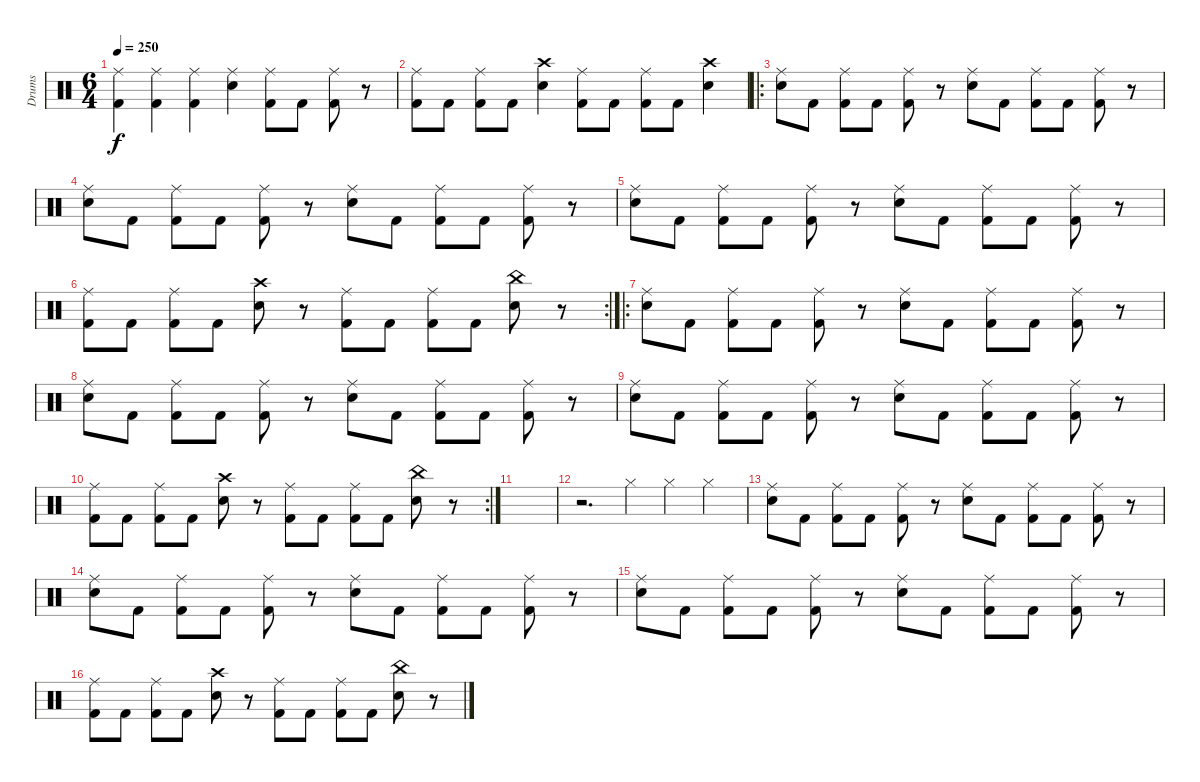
\track ("Drums" "Drums") {instrument percussion}
\staff {score}
\articulation defaults
\ts (6 4)
\tempo 250
\clef neutral
\ks c
("Ride (middle)" "Kick (hit) 2").4{dy f} ("Ride (middle)" "Kick (hit) 2").4 ("Ride (middle)" "Kick (hit) 2").4 ("Ride (middle)" "Snare (hit) 2").4 ("Ride (middle)" "Kick (hit) 2").8 "Kick (hit) 2".8 ("Ride (middle)" "Kick (hit) 2").8 r.8 |
("Ride (middle)" "Kick (hit) 2").8 "Kick (hit) 2".8 ("Ride (middle)" "Kick (hit) 2").8 "Kick (hit) 2".8 ("Crash high (hit)" "Snare (hit) 2").4 ("Ride (middle)" "Kick (hit) 2").8 "Kick (hit) 2".8 ("Ride (middle)" "Kick (hit) 2").8 "Kick (hit) 2".8 ("Crash high (hit)" "Snare (hit) 2").4 |
\ro
("Ride (middle)" "Snare (hit) 2").8 "Kick (hit) 2".8 ("Ride (middle)" "Kick (hit) 2").8 "Kick (hit) 2".8 ("Ride (middle)" "Kick (hit) 2").8 r.8 ("Ride (middle)" "Snare (hit) 2").8 "Kick (hit) 2".8 ("Ride (middle)" "Kick (hit) 2").8 "Kick (hit) 2".8 ("Ride (middle)" "Kick (hit) 2").8 r.8 |
("Ride (middle)" "Snare (hit) 2").8 "Kick (hit) 2".8 ("Ride (middle)" "Kick (hit) 2").8 "Kick (hit) 2".8 ("Ride (middle)" "Kick (hit) 2").8 r.8 ("Ride (middle)" "Snare (hit) 2").8 "Kick (hit) 2".8 ("Ride (middle)" "Kick (hit) 2").8 "Kick (hit) 2".8 ("Ride (middle)" "Kick (hit) 2").8 r.8 |
("Ride (middle)" "Snare (hit) 2").8 "Kick (hit) 2".8 ("Ride (middle)" "Kick (hit) 2").8 "Kick (hit) 2".8 ("Ride (middle)" "Kick (hit) 2").8 r.8 ("Ride (middle)" "Snare (hit) 2").8 "Kick (hit) 2".8 ("Ride (middle)" "Kick (hit) 2").8 "Kick (hit) 2".8 ("Ride (middle)" "Kick (hit) 2").8 r.8 |
\rc 2
("Ride (middle)" "Kick (hit) 2").8 "Kick (hit) 2".8 ("Ride (middle)" "Kick (hit) 2").8 "Kick (hit) 2".8 ("Crash high (hit)" "Snare (hit) 2").8 r.8 ("Ride (middle)" "Kick (hit) 2").8 "Kick (hit) 2".8 ("Ride (middle)" "Kick (hit) 2").8 "Kick (hit) 2".8 ("China (hit)" "Snare (hit) 2").8 r.8 |
\ro
("Ride (middle)" "Snare (hit) 2").8 "Kick (hit) 2".8 ("Ride (middle)" "Kick (hit) 2").8 "Kick (hit) 2".8 ("Ride (middle)" "Kick (hit) 2").8 r.8 ("Ride (middle)" "Snare (hit) 2").8 "Kick (hit) 2".8 ("Ride (middle)" "Kick (hit) 2").8 "Kick (hit) 2".8 ("Ride (middle)" "Kick (hit) 2").8 r.8 |
("Ride (middle)" "Snare (hit) 2").8 "Kick (hit) 2".8 ("Ride (middle)" "Kick (hit) 2").8 "Kick (hit) 2".8 ("Ride (middle)" "Kick (hit) 2").8 r.8 ("Ride (middle)" "Snare (hit) 2").8 "Kick (hit) 2".8 ("Ride (middle)" "Kick (hit) 2").8 "Kick (hit) 2".8 ("Ride (middle)" "Kick (hit) 2").8 r.8 |
("Ride (middle)" "Snare (hit) 2").8 "Kick (hit) 2".8 ("Ride (middle)" "Kick (hit) 2").8 "Kick (hit) 2".8 ("Ride (middle)" "Kick (hit) 2").8 r.8 ("Ride (middle)" "Snare (hit) 2").8 "Kick (hit) 2".8 ("Ride (middle)" "Kick (hit) 2").8 "Kick (hit) 2".8 ("Ride (middle)" "Kick (hit) 2").8 r.8 |
\rc 2
("Ride (middle)" "Kick (hit) 2").8 "Kick (hit) 2".8 ("Ride (middle)" "Kick (hit) 2").8 "Kick (hit) 2".8 ("Crash high (hit)" "Snare (hit) 2").8 r.8 ("Ride (middle)" "Kick (hit) 2").8 "Kick (hit) 2".8 ("Ride (middle)" "Kick (hit) 2").8 "Kick (hit) 2".8 ("China (hit)" "Snare (hit) 2").8 r.8 |
|
r.2{d} "Hi-Hat (closed)".4 "Hi-Hat (closed)".4 "Hi-Hat (closed)".4 |
("Ride (middle)" "Snare (hit) 2").8 "Kick (hit) 2".8 ("Ride (middle)" "Kick (hit) 2").8 "Kick (hit) 2".8 ("Ride (middle)" "Kick (hit) 2").8 r.8 ("Ride (middle)" "Snare (hit) 2").8 "Kick (hit) 2".8 ("Ride (middle)" "Kick (hit) 2").8 "Kick (hit) 2".8 ("Ride (middle)" "Kick (hit) 2").8 r.8 |
("Ride (middle)" "Snare (hit) 2").8 "Kick (hit) 2".8 ("Ride (middle)" "Kick (hit) 2").8 "Kick (hit) 2".8 ("Ride (middle)" "Kick (hit) 2").8 r.8 ("Ride (middle)" "Snare (hit) 2").8 "Kick (hit) 2".8 ("Ride (middle)" "Kick (hit) 2").8 "Kick (hit) 2".8 ("Ride (middle)" "Kick (hit) 2").8 r.8 |
("Ride (middle)" "Snare (hit) 2").8 "Kick (hit) 2".8 ("Ride (middle)" "Kick (hit) 2").8 "Kick (hit) 2".8 ("Ride (middle)" "Kick (hit) 2").8 r.8 ("Ride (middle)" "Snare (hit) 2").8 "Kick (hit) 2".8 ("Ride (middle)" "Kick (hit) 2").8 "Kick (hit) 2".8 ("Ride (middle)" "Kick (hit) 2").8 r.8 |
("Ride (middle)" "Kick (hit) 2").8 "Kick (hit) 2".8 ("Ride (middle)" "Kick (hit) 2").8 "Kick (hit) 2".8 ("Crash high (hit)" "Snare (hit) 2").8 r.8 ("Ride (middle)" "Kick (hit) 2").8 "Kick (hit) 2".8 ("Ride (middle)" "Kick (hit) 2").8 "Kick (hit) 2".8 ("China (hit)" "Snare (hit) 2").8 r.8
